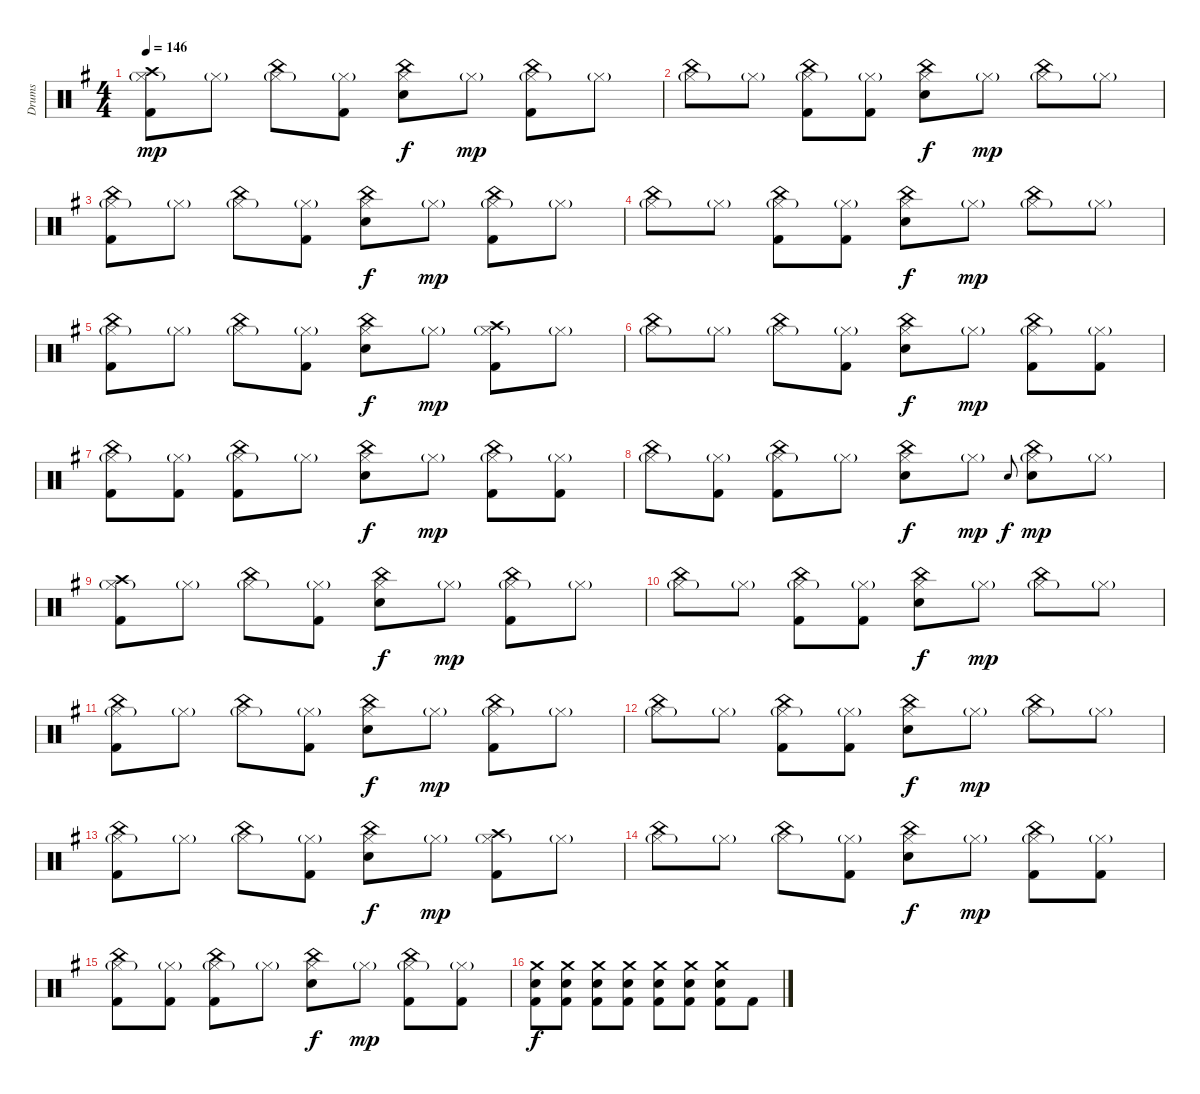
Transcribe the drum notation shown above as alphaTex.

\track ("Drums" "Drums") {instrument percussion}
\staff {score}
\articulation defaults
\ts (4 4)
\tempo 146
\clef neutral
\ks eminor
("Crash high (hit)" "Hi-Hat (closed)"{g} "Kick (hit) 2").8{dy mp} "Hi-Hat (closed)"{g}.8 ("China (hit)" "Hi-Hat (closed)"{g}).8 ("Hi-Hat (closed)"{g} "Kick (hit) 2").8 ("China (hit)" "Hi-Hat (closed)" "Snare (hit) 2").8{dy f} "Hi-Hat (closed)"{g}.8{dy mp} ("China (hit)" "Hi-Hat (closed)"{g} "Kick (hit) 2").8 "Hi-Hat (closed)"{g}.8 |
("China (hit)" "Hi-Hat (closed)"{g}).8 "Hi-Hat (closed)"{g}.8 ("China (hit)" "Hi-Hat (closed)"{g} "Kick (hit) 2").8 ("Hi-Hat (closed)"{g} "Kick (hit) 2").8 ("China (hit)" "Hi-Hat (closed)" "Snare (hit) 2").8{dy f} "Hi-Hat (closed)"{g}.8{dy mp} ("China (hit)" "Hi-Hat (closed)"{g}).8 "Hi-Hat (closed)"{g}.8 |
("China (hit)" "Hi-Hat (closed)"{g} "Kick (hit) 2").8 "Hi-Hat (closed)"{g}.8 ("China (hit)" "Hi-Hat (closed)"{g}).8 ("Hi-Hat (closed)"{g} "Kick (hit) 2").8 ("China (hit)" "Hi-Hat (closed)" "Snare (hit) 2").8{dy f} "Hi-Hat (closed)"{g}.8{dy mp} ("China (hit)" "Hi-Hat (closed)"{g} "Kick (hit) 2").8 "Hi-Hat (closed)"{g}.8 |
("China (hit)" "Hi-Hat (closed)"{g}).8 "Hi-Hat (closed)"{g}.8 ("China (hit)" "Hi-Hat (closed)"{g} "Kick (hit) 2").8 ("Hi-Hat (closed)"{g} "Kick (hit) 2").8 ("China (hit)" "Hi-Hat (closed)" "Snare (hit) 2").8{dy f} "Hi-Hat (closed)"{g}.8{dy mp} ("China (hit)" "Hi-Hat (closed)"{g}).8 "Hi-Hat (closed)"{g}.8 |
("China (hit)" "Hi-Hat (closed)"{g} "Kick (hit) 2").8 "Hi-Hat (closed)"{g}.8 ("China (hit)" "Hi-Hat (closed)"{g}).8 ("Hi-Hat (closed)"{g} "Kick (hit) 2").8 ("China (hit)" "Hi-Hat (closed)" "Snare (hit) 2").8{dy f} "Hi-Hat (closed)"{g}.8{dy mp} ("Crash high (hit)" "Hi-Hat (closed)"{g} "Kick (hit) 2").8 "Hi-Hat (closed)"{g}.8 |
("China (hit)" "Hi-Hat (closed)"{g}).8 "Hi-Hat (closed)"{g}.8 ("China (hit)" "Hi-Hat (closed)"{g}).8 ("Hi-Hat (closed)"{g} "Kick (hit) 2").8 ("China (hit)" "Hi-Hat (closed)" "Snare (hit) 2").8{dy f} "Hi-Hat (closed)"{g}.8{dy mp} ("China (hit)" "Hi-Hat (closed)"{g} "Kick (hit) 2").8 ("Hi-Hat (closed)"{g} "Kick (hit) 2").8 |
("China (hit)" "Hi-Hat (closed)"{g} "Kick (hit) 2").8 ("Hi-Hat (closed)"{g} "Kick (hit) 2").8 ("China (hit)" "Hi-Hat (closed)"{g} "Kick (hit) 2").8 "Hi-Hat (closed)"{g}.8 ("China (hit)" "Hi-Hat (closed)" "Snare (hit) 2").8{dy f} "Hi-Hat (closed)"{g}.8{dy mp} ("China (hit)" "Hi-Hat (closed)"{g} "Kick (hit) 2").8 ("Hi-Hat (closed)"{g} "Kick (hit) 2").8 |
("China (hit)" "Hi-Hat (closed)"{g}).8 ("Hi-Hat (closed)"{g} "Kick (hit) 2").8 ("China (hit)" "Hi-Hat (closed)"{g} "Kick (hit) 2").8 "Hi-Hat (closed)"{g}.8 ("China (hit)" "Hi-Hat (closed)" "Snare (hit) 2").8{dy f} "Hi-Hat (closed)"{g}.8{dy mp} "Snare (hit) 2".8{gr onbeat dy f} ("China (hit)" "Hi-Hat (closed)"{g} "Snare (hit) 2").8{dy mp} "Hi-Hat (closed)"{g}.8 |
("Crash high (hit)" "Hi-Hat (closed)"{g} "Kick (hit) 2").8 "Hi-Hat (closed)"{g}.8 ("China (hit)" "Hi-Hat (closed)"{g}).8 ("Hi-Hat (closed)"{g} "Kick (hit) 2").8 ("China (hit)" "Hi-Hat (closed)" "Snare (hit) 2").8{dy f} "Hi-Hat (closed)"{g}.8{dy mp} ("China (hit)" "Hi-Hat (closed)"{g} "Kick (hit) 2").8 "Hi-Hat (closed)"{g}.8 |
("China (hit)" "Hi-Hat (closed)"{g}).8 "Hi-Hat (closed)"{g}.8 ("China (hit)" "Hi-Hat (closed)"{g} "Kick (hit) 2").8 ("Hi-Hat (closed)"{g} "Kick (hit) 2").8 ("China (hit)" "Hi-Hat (closed)" "Snare (hit) 2").8{dy f} "Hi-Hat (closed)"{g}.8{dy mp} ("China (hit)" "Hi-Hat (closed)"{g}).8 "Hi-Hat (closed)"{g}.8 |
("China (hit)" "Hi-Hat (closed)"{g} "Kick (hit) 2").8 "Hi-Hat (closed)"{g}.8 ("China (hit)" "Hi-Hat (closed)"{g}).8 ("Hi-Hat (closed)"{g} "Kick (hit) 2").8 ("China (hit)" "Hi-Hat (closed)" "Snare (hit) 2").8{dy f} "Hi-Hat (closed)"{g}.8{dy mp} ("China (hit)" "Hi-Hat (closed)"{g} "Kick (hit) 2").8 "Hi-Hat (closed)"{g}.8 |
("China (hit)" "Hi-Hat (closed)"{g}).8 "Hi-Hat (closed)"{g}.8 ("China (hit)" "Hi-Hat (closed)"{g} "Kick (hit) 2").8 ("Hi-Hat (closed)"{g} "Kick (hit) 2").8 ("China (hit)" "Hi-Hat (closed)" "Snare (hit) 2").8{dy f} "Hi-Hat (closed)"{g}.8{dy mp} ("China (hit)" "Hi-Hat (closed)"{g}).8 "Hi-Hat (closed)"{g}.8 |
("China (hit)" "Hi-Hat (closed)"{g} "Kick (hit) 2").8 "Hi-Hat (closed)"{g}.8 ("China (hit)" "Hi-Hat (closed)"{g}).8 ("Hi-Hat (closed)"{g} "Kick (hit) 2").8 ("China (hit)" "Hi-Hat (closed)" "Snare (hit) 2").8{dy f} "Hi-Hat (closed)"{g}.8{dy mp} ("Crash high (hit)" "Hi-Hat (closed)"{g} "Kick (hit) 2").8 "Hi-Hat (closed)"{g}.8 |
("China (hit)" "Hi-Hat (closed)"{g}).8 "Hi-Hat (closed)"{g}.8 ("China (hit)" "Hi-Hat (closed)"{g}).8 ("Hi-Hat (closed)"{g} "Kick (hit) 2").8 ("China (hit)" "Hi-Hat (closed)" "Snare (hit) 2").8{dy f} "Hi-Hat (closed)"{g}.8{dy mp} ("China (hit)" "Hi-Hat (closed)"{g} "Kick (hit) 2").8 ("Hi-Hat (closed)"{g} "Kick (hit) 2").8 |
("China (hit)" "Hi-Hat (closed)"{g} "Kick (hit) 2").8 ("Hi-Hat (closed)"{g} "Kick (hit) 2").8 ("China (hit)" "Hi-Hat (closed)"{g} "Kick (hit) 2").8 "Hi-Hat (closed)"{g}.8 ("China (hit)" "Hi-Hat (closed)" "Snare (hit) 2").8{dy f} "Hi-Hat (closed)"{g}.8{dy mp} ("China (hit)" "Hi-Hat (closed)"{g} "Kick (hit) 2").8 ("Hi-Hat (closed)"{g} "Kick (hit) 2").8 |
("Crash medium (hit)" "Snare (hit) 2" "Kick (hit) 2").8{dy f} ("Crash medium (hit)" "Snare (hit) 2" "Kick (hit) 2").8 ("Crash medium (hit)" "Snare (hit) 2" "Kick (hit) 2").8 ("Crash medium (hit)" "Snare (hit) 2" "Kick (hit) 2").8 ("Crash medium (hit)" "Snare (hit) 2" "Kick (hit) 2").8 ("Crash medium (hit)" "Snare (hit) 2" "Kick (hit) 2").8 ("Crash medium (hit)" "Snare (hit) 2" "Kick (hit) 2").8 "Kick (hit) 2".8
